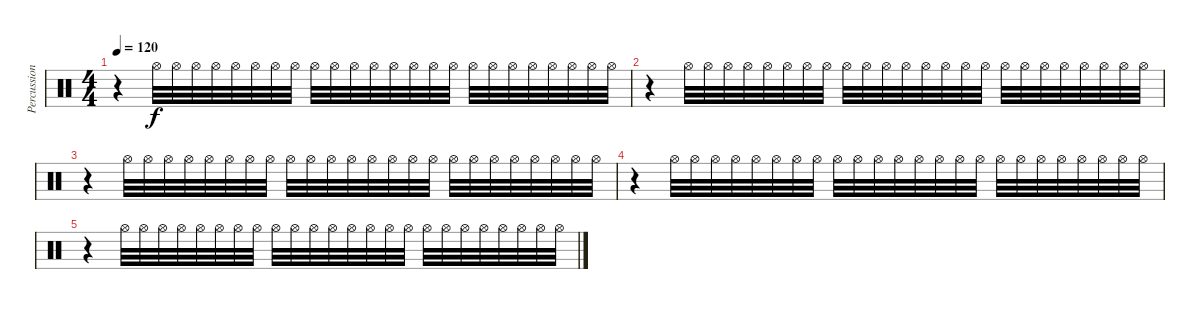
\track ("Percussion" "Percussion") {instrument percussion}
\staff {score}
\articulation defaults
\ts (4 4)
\tempo 120
\clef neutral
\ks c
r.4{dy f volume 0} "Hi-Hat (open)".32{volume 13} "Hi-Hat (open)".32 "Hi-Hat (open)".32 "Hi-Hat (open)".32 "Hi-Hat (open)".32 "Hi-Hat (open)".32 "Hi-Hat (open)".32 "Hi-Hat (open)".32 "Hi-Hat (open)".32 "Hi-Hat (open)".32 "Hi-Hat (open)".32 "Hi-Hat (open)".32 "Hi-Hat (open)".32 "Hi-Hat (open)".32 "Hi-Hat (open)".32 "Hi-Hat (open)".32 "Hi-Hat (open)".32 "Hi-Hat (open)".32 "Hi-Hat (open)".32 "Hi-Hat (open)".32 "Hi-Hat (open)".32 "Hi-Hat (open)".32 "Hi-Hat (open)".32 "Hi-Hat (open)".32 |
r.4{volume 0} "Hi-Hat (open)".32{volume 13} "Hi-Hat (open)".32 "Hi-Hat (open)".32 "Hi-Hat (open)".32 "Hi-Hat (open)".32 "Hi-Hat (open)".32 "Hi-Hat (open)".32 "Hi-Hat (open)".32 "Hi-Hat (open)".32 "Hi-Hat (open)".32 "Hi-Hat (open)".32 "Hi-Hat (open)".32 "Hi-Hat (open)".32 "Hi-Hat (open)".32 "Hi-Hat (open)".32 "Hi-Hat (open)".32 "Hi-Hat (open)".32 "Hi-Hat (open)".32 "Hi-Hat (open)".32 "Hi-Hat (open)".32 "Hi-Hat (open)".32 "Hi-Hat (open)".32 "Hi-Hat (open)".32 "Hi-Hat (open)".32 |
r.4{volume 0} "Hi-Hat (open)".32{volume 13} "Hi-Hat (open)".32 "Hi-Hat (open)".32 "Hi-Hat (open)".32 "Hi-Hat (open)".32 "Hi-Hat (open)".32 "Hi-Hat (open)".32 "Hi-Hat (open)".32 "Hi-Hat (open)".32 "Hi-Hat (open)".32 "Hi-Hat (open)".32 "Hi-Hat (open)".32 "Hi-Hat (open)".32 "Hi-Hat (open)".32 "Hi-Hat (open)".32 "Hi-Hat (open)".32 "Hi-Hat (open)".32 "Hi-Hat (open)".32 "Hi-Hat (open)".32 "Hi-Hat (open)".32 "Hi-Hat (open)".32 "Hi-Hat (open)".32 "Hi-Hat (open)".32 "Hi-Hat (open)".32 |
r.4{volume 0} "Hi-Hat (open)".32{volume 13} "Hi-Hat (open)".32 "Hi-Hat (open)".32 "Hi-Hat (open)".32 "Hi-Hat (open)".32 "Hi-Hat (open)".32 "Hi-Hat (open)".32 "Hi-Hat (open)".32 "Hi-Hat (open)".32 "Hi-Hat (open)".32 "Hi-Hat (open)".32 "Hi-Hat (open)".32 "Hi-Hat (open)".32 "Hi-Hat (open)".32 "Hi-Hat (open)".32 "Hi-Hat (open)".32 "Hi-Hat (open)".32 "Hi-Hat (open)".32 "Hi-Hat (open)".32 "Hi-Hat (open)".32 "Hi-Hat (open)".32 "Hi-Hat (open)".32 "Hi-Hat (open)".32 "Hi-Hat (open)".32 |
r.4{volume 0} "Hi-Hat (open)".32{volume 13} "Hi-Hat (open)".32 "Hi-Hat (open)".32 "Hi-Hat (open)".32 "Hi-Hat (open)".32 "Hi-Hat (open)".32 "Hi-Hat (open)".32 "Hi-Hat (open)".32 "Hi-Hat (open)".32 "Hi-Hat (open)".32 "Hi-Hat (open)".32 "Hi-Hat (open)".32 "Hi-Hat (open)".32 "Hi-Hat (open)".32 "Hi-Hat (open)".32 "Hi-Hat (open)".32 "Hi-Hat (open)".32 "Hi-Hat (open)".32 "Hi-Hat (open)".32 "Hi-Hat (open)".32 "Hi-Hat (open)".32 "Hi-Hat (open)".32 "Hi-Hat (open)".32 "Hi-Hat (open)".32
